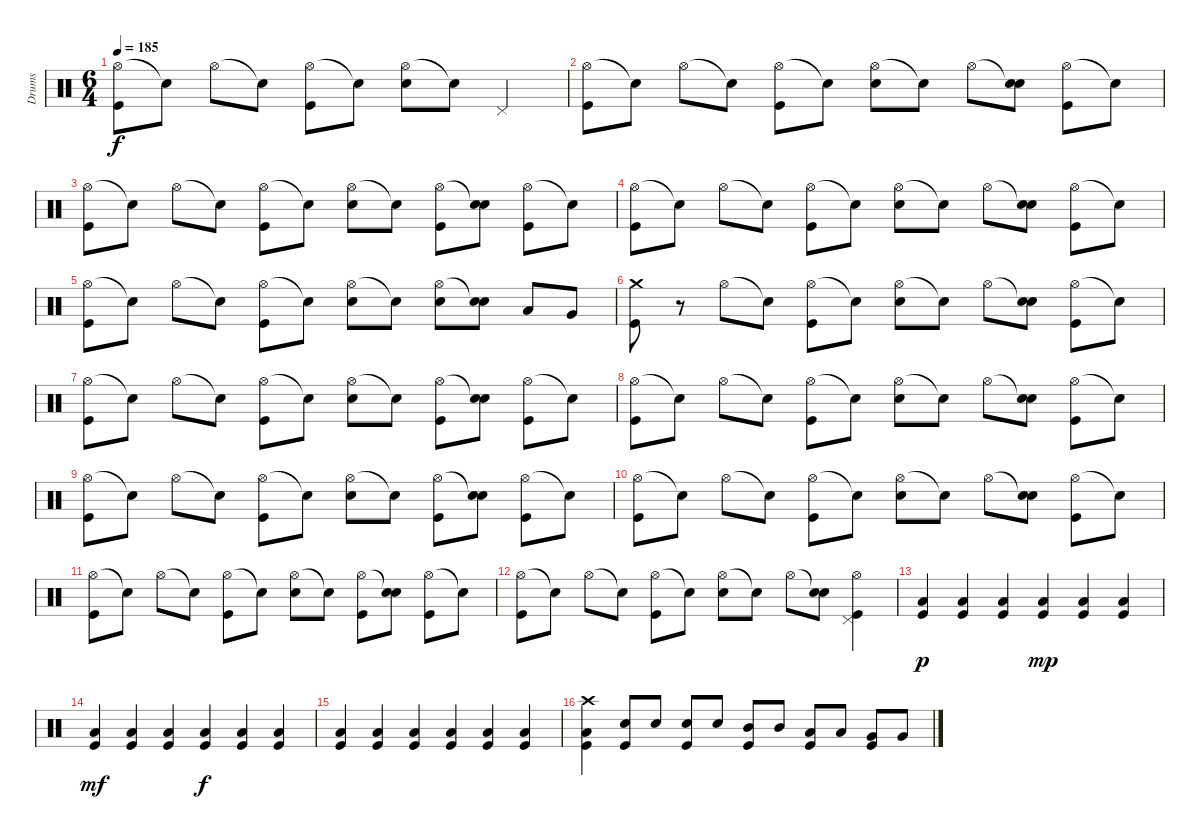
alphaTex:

\track ("Drums" "Drums") {instrument percussion}
\staff {score}
\articulation defaults
\ts (6 4)
\tempo 185
\clef neutral
\ks c
("Hi-Hat (open)" "Kick (hit)").8{dy f} "Snare (hit)"{t}.8 "Hi-Hat (open)".8 "Snare (hit)"{t}.8 ("Hi-Hat (open)" "Kick (hit)").8 "Snare (hit)"{t}.8 ("Hi-Hat (open)" "Electric Snare (hit)").8 "Snare (hit)"{t}.8 "Pedal Hi-Hat (hit)".2 |
("Hi-Hat (open)" "Kick (hit)").8 "Snare (hit)"{t}.8 "Hi-Hat (open)".8 "Snare (hit)"{t}.8 ("Hi-Hat (open)" "Kick (hit)").8 "Snare (hit)"{t}.8 ("Hi-Hat (open)" "Electric Snare (hit)").8 "Snare (hit)"{t}.8 "Hi-Hat (open)".8 ("Snare (hit)"{t} "Electric Snare (hit)").8 ("Hi-Hat (open)" "Kick (hit)").8 "Snare (hit)"{t}.8 |
("Hi-Hat (open)" "Kick (hit)").8 "Snare (hit)"{t}.8 "Hi-Hat (open)".8 "Snare (hit)"{t}.8 ("Hi-Hat (open)" "Kick (hit)").8 "Snare (hit)"{t}.8 ("Hi-Hat (open)" "Electric Snare (hit)").8 "Snare (hit)"{t}.8 ("Hi-Hat (open)" "Kick (hit)").8 ("Snare (hit)"{t} "Electric Snare (hit)").8 ("Hi-Hat (open)" "Kick (hit)").8 "Snare (hit)"{t}.8 |
("Hi-Hat (open)" "Kick (hit)").8 "Snare (hit)"{t}.8 "Hi-Hat (open)".8 "Snare (hit)"{t}.8 ("Hi-Hat (open)" "Kick (hit)").8 "Snare (hit)"{t}.8 ("Hi-Hat (open)" "Electric Snare (hit)").8 "Snare (hit)"{t}.8 "Hi-Hat (open)".8 ("Snare (hit)"{t} "Electric Snare (hit)").8 ("Hi-Hat (open)" "Kick (hit)").8 "Snare (hit)"{t}.8 |
("Hi-Hat (open)" "Kick (hit)").8 "Snare (hit)"{t}.8 "Hi-Hat (open)".8 "Snare (hit)"{t}.8 ("Hi-Hat (open)" "Kick (hit)").8 "Snare (hit)"{t}.8 ("Hi-Hat (open)" "Electric Snare (hit)").8 "Snare (hit)"{t}.8 ("Hi-Hat (open)" "Electric Snare (hit)").8 ("Snare (hit)"{t} "Electric Snare (hit)").8 "Low Tom (hit)".8 "Very Low Tom (hit)".8 |
("Crash medium (hit)" "Kick (hit)").8 r.8 "Hi-Hat (open)".8 "Snare (hit)"{t}.8 ("Hi-Hat (open)" "Kick (hit)").8 "Snare (hit)"{t}.8 ("Hi-Hat (open)" "Electric Snare (hit)").8 "Snare (hit)"{t}.8 "Hi-Hat (open)".8 ("Snare (hit)"{t} "Electric Snare (hit)").8 ("Hi-Hat (open)" "Kick (hit)").8 "Snare (hit)"{t}.8 |
("Hi-Hat (open)" "Kick (hit)").8 "Snare (hit)"{t}.8 "Hi-Hat (open)".8 "Snare (hit)"{t}.8 ("Hi-Hat (open)" "Kick (hit)").8 "Snare (hit)"{t}.8 ("Hi-Hat (open)" "Electric Snare (hit)").8 "Snare (hit)"{t}.8 ("Hi-Hat (open)" "Kick (hit)").8 ("Snare (hit)"{t} "Electric Snare (hit)").8 ("Hi-Hat (open)" "Kick (hit)").8 "Snare (hit)"{t}.8 |
("Hi-Hat (open)" "Kick (hit)").8 "Snare (hit)"{t}.8 "Hi-Hat (open)".8 "Snare (hit)"{t}.8 ("Hi-Hat (open)" "Kick (hit)").8 "Snare (hit)"{t}.8 ("Hi-Hat (open)" "Electric Snare (hit)").8 "Snare (hit)"{t}.8 "Hi-Hat (open)".8 ("Snare (hit)"{t} "Electric Snare (hit)").8 ("Hi-Hat (open)" "Kick (hit)").8 "Snare (hit)"{t}.8 |
("Hi-Hat (open)" "Kick (hit)").8 "Snare (hit)"{t}.8 "Hi-Hat (open)".8 "Snare (hit)"{t}.8 ("Hi-Hat (open)" "Kick (hit)").8 "Snare (hit)"{t}.8 ("Hi-Hat (open)" "Electric Snare (hit)").8 "Snare (hit)"{t}.8 ("Hi-Hat (open)" "Kick (hit)").8 ("Snare (hit)"{t} "Electric Snare (hit)").8 ("Hi-Hat (open)" "Kick (hit)").8 "Snare (hit)"{t}.8 |
("Hi-Hat (open)" "Kick (hit)").8 "Snare (hit)"{t}.8 "Hi-Hat (open)".8 "Snare (hit)"{t}.8 ("Hi-Hat (open)" "Kick (hit)").8 "Snare (hit)"{t}.8 ("Hi-Hat (open)" "Electric Snare (hit)").8 "Snare (hit)"{t}.8 "Hi-Hat (open)".8 ("Snare (hit)"{t} "Electric Snare (hit)").8 ("Hi-Hat (open)" "Kick (hit)").8 "Snare (hit)"{t}.8 |
("Hi-Hat (open)" "Kick (hit)").8 "Snare (hit)"{t}.8 "Hi-Hat (open)".8 "Snare (hit)"{t}.8 ("Hi-Hat (open)" "Kick (hit)").8 "Snare (hit)"{t}.8 ("Hi-Hat (open)" "Electric Snare (hit)").8 "Snare (hit)"{t}.8 ("Hi-Hat (open)" "Kick (hit)").8 ("Snare (hit)"{t} "Electric Snare (hit)").8 ("Hi-Hat (open)" "Kick (hit)").8 "Snare (hit)"{t}.8 |
("Hi-Hat (open)" "Kick (hit)").8 "Snare (hit)"{t}.8 "Hi-Hat (open)".8 "Snare (hit)"{t}.8 ("Hi-Hat (open)" "Kick (hit)").8 "Snare (hit)"{t}.8 ("Hi-Hat (open)" "Electric Snare (hit)").8 "Snare (hit)"{t}.8 "Hi-Hat (open)".8 ("Snare (hit)"{t} "Electric Snare (hit)").8 ("Hi-Hat (open)" "Pedal Hi-Hat (hit)" "Kick (hit)").4 |
("Low Floor Tom (hit)" "Kick (hit)").4{dy p} ("Low Floor Tom (hit)" "Kick (hit)").4 ("Low Floor Tom (hit)" "Kick (hit)").4 ("Low Floor Tom (hit)" "Kick (hit)").4{dy mp} ("Low Floor Tom (hit)" "Kick (hit)").4 ("Low Floor Tom (hit)" "Kick (hit)").4 |
("Low Floor Tom (hit)" "Kick (hit)").4{dy mf} ("Low Floor Tom (hit)" "Kick (hit)").4 ("Low Floor Tom (hit)" "Kick (hit)").4 ("Low Floor Tom (hit)" "Kick (hit)").4{dy f} ("Low Floor Tom (hit)" "Kick (hit)").4 ("Low Floor Tom (hit)" "Kick (hit)").4 |
("Low Floor Tom (hit)" "Kick (hit)").4 ("Low Floor Tom (hit)" "Kick (hit)").4 ("Low Floor Tom (hit)" "Kick (hit)").4 ("Low Floor Tom (hit)" "Kick (hit)").4 ("Low Floor Tom (hit)" "Kick (hit)").4 ("Low Floor Tom (hit)" "Kick (hit)").4 |
("Crash high (hit)" "Low Floor Tom (hit)" "Kick (hit)").4 ("Electric Snare (hit)" "Kick (hit)").8 "Electric Snare (hit)".8 ("Electric Snare (hit)" "Kick (hit)").8 "Electric Snare (hit)".8 ("Mid Tom (hit)" "Kick (hit)").8 "Mid Tom (hit)".8 ("Low Tom (hit)" "Kick (hit)").8 "Low Tom (hit)".8 ("Very Low Tom (hit)" "Kick (hit)").8 "Very Low Tom (hit)".8
